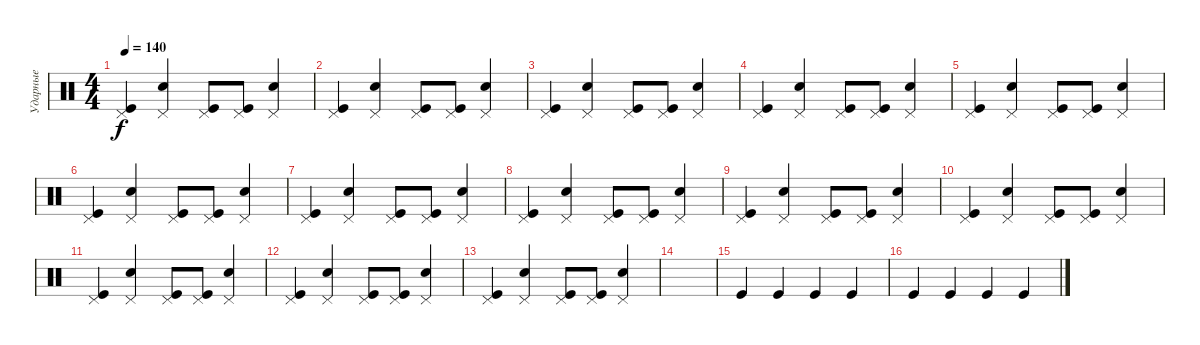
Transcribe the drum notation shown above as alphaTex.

\track ("Ударные" "Ударные") {instrument percussion}
\staff {score}
\articulation defaults
\ts (4 4)
\tempo 140
\clef neutral
\ks c
("Kick (hit)" "Pedal Hi-Hat (hit)").4{dy f} ("Electric Snare (hit)" "Pedal Hi-Hat (hit)").4 ("Kick (hit)" "Pedal Hi-Hat (hit)").8 ("Kick (hit)" "Pedal Hi-Hat (hit)").8 ("Electric Snare (hit)" "Pedal Hi-Hat (hit)").4 |
("Kick (hit)" "Pedal Hi-Hat (hit)").4 ("Electric Snare (hit)" "Pedal Hi-Hat (hit)").4 ("Kick (hit)" "Pedal Hi-Hat (hit)").8 ("Kick (hit)" "Pedal Hi-Hat (hit)").8 ("Electric Snare (hit)" "Pedal Hi-Hat (hit)").4 |
("Kick (hit)" "Pedal Hi-Hat (hit)").4 ("Electric Snare (hit)" "Pedal Hi-Hat (hit)").4 ("Kick (hit)" "Pedal Hi-Hat (hit)").8 ("Kick (hit)" "Pedal Hi-Hat (hit)").8 ("Electric Snare (hit)" "Pedal Hi-Hat (hit)").4 |
("Kick (hit)" "Pedal Hi-Hat (hit)").4 ("Electric Snare (hit)" "Pedal Hi-Hat (hit)").4 ("Kick (hit)" "Pedal Hi-Hat (hit)").8 ("Kick (hit)" "Pedal Hi-Hat (hit)").8 ("Electric Snare (hit)" "Pedal Hi-Hat (hit)").4 |
("Kick (hit)" "Pedal Hi-Hat (hit)").4 ("Electric Snare (hit)" "Pedal Hi-Hat (hit)").4 ("Kick (hit)" "Pedal Hi-Hat (hit)").8 ("Kick (hit)" "Pedal Hi-Hat (hit)").8 ("Electric Snare (hit)" "Pedal Hi-Hat (hit)").4 |
("Kick (hit)" "Pedal Hi-Hat (hit)").4 ("Electric Snare (hit)" "Pedal Hi-Hat (hit)").4 ("Kick (hit)" "Pedal Hi-Hat (hit)").8 ("Kick (hit)" "Pedal Hi-Hat (hit)").8 ("Electric Snare (hit)" "Pedal Hi-Hat (hit)").4 |
("Kick (hit)" "Pedal Hi-Hat (hit)").4 ("Electric Snare (hit)" "Pedal Hi-Hat (hit)").4 ("Kick (hit)" "Pedal Hi-Hat (hit)").8 ("Kick (hit)" "Pedal Hi-Hat (hit)").8 ("Electric Snare (hit)" "Pedal Hi-Hat (hit)").4 |
("Kick (hit)" "Pedal Hi-Hat (hit)").4 ("Electric Snare (hit)" "Pedal Hi-Hat (hit)").4 ("Kick (hit)" "Pedal Hi-Hat (hit)").8 ("Kick (hit)" "Pedal Hi-Hat (hit)").8 ("Electric Snare (hit)" "Pedal Hi-Hat (hit)").4 |
("Kick (hit)" "Pedal Hi-Hat (hit)").4 ("Electric Snare (hit)" "Pedal Hi-Hat (hit)").4 ("Kick (hit)" "Pedal Hi-Hat (hit)").8 ("Kick (hit)" "Pedal Hi-Hat (hit)").8 ("Electric Snare (hit)" "Pedal Hi-Hat (hit)").4 |
("Kick (hit)" "Pedal Hi-Hat (hit)").4 ("Electric Snare (hit)" "Pedal Hi-Hat (hit)").4 ("Kick (hit)" "Pedal Hi-Hat (hit)").8 ("Kick (hit)" "Pedal Hi-Hat (hit)").8 ("Electric Snare (hit)" "Pedal Hi-Hat (hit)").4 |
("Kick (hit)" "Pedal Hi-Hat (hit)").4 ("Electric Snare (hit)" "Pedal Hi-Hat (hit)").4 ("Kick (hit)" "Pedal Hi-Hat (hit)").8 ("Kick (hit)" "Pedal Hi-Hat (hit)").8 ("Electric Snare (hit)" "Pedal Hi-Hat (hit)").4 |
("Kick (hit)" "Pedal Hi-Hat (hit)").4 ("Electric Snare (hit)" "Pedal Hi-Hat (hit)").4 ("Kick (hit)" "Pedal Hi-Hat (hit)").8 ("Kick (hit)" "Pedal Hi-Hat (hit)").8 ("Electric Snare (hit)" "Pedal Hi-Hat (hit)").4 |
("Kick (hit)" "Pedal Hi-Hat (hit)").4 ("Electric Snare (hit)" "Pedal Hi-Hat (hit)").4 ("Kick (hit)" "Pedal Hi-Hat (hit)").8 ("Kick (hit)" "Pedal Hi-Hat (hit)").8 ("Electric Snare (hit)" "Pedal Hi-Hat (hit)").4 |
|
"Kick (hit)".4 "Kick (hit)".4 "Kick (hit)".4 "Kick (hit)".4 |
"Kick (hit)".4 "Kick (hit)".4 "Kick (hit)".4 "Kick (hit)".4
